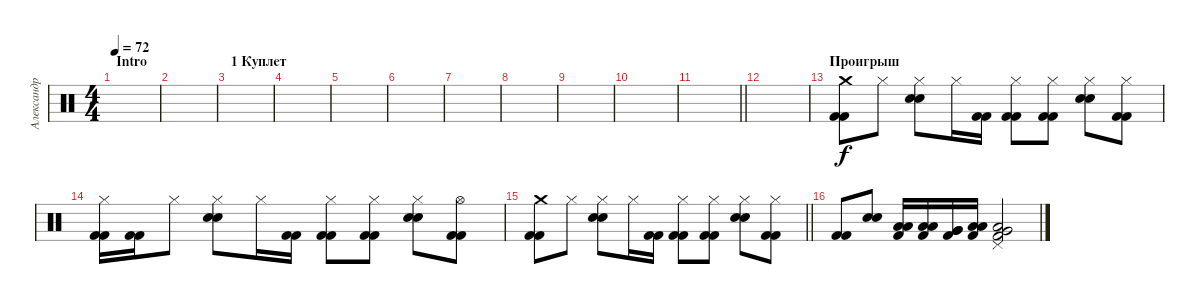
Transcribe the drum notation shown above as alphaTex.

\track ("Александр Манякин (Drums)" "Александр ") {instrument percussion}
\staff {score}
\articulation defaults
\ts (4 4)
\section ("" "Intro")
\tempo 72
\clef neutral
\ks c
|
|
\section ("" "1 Куплет")
|
|
|
|
|
|
|
|
\barLineRight lightlight
|
|
\section ("" "Проигрыш")
("Crash medium (hit)" "Kick (hit) 2" "Kick (hit) 2").8 "Hi-Hat (closed)".8 ("Hi-Hat (closed)" "Electric Snare (hit)" "Electric Snare (hit)").8 "Hi-Hat (closed)".16 ("Kick (hit) 2" "Kick (hit) 2").16 ("Hi-Hat (closed)" "Kick (hit) 2" "Kick (hit) 2").8 ("Hi-Hat (closed)" "Kick (hit) 2" "Kick (hit) 2").8 ("Hi-Hat (closed)" "Electric Snare (hit)" "Electric Snare (hit)").8 ("Hi-Hat (closed)" "Kick (hit) 2" "Kick (hit) 2").8 |
("Hi-Hat (closed)" "Kick (hit) 2" "Kick (hit) 2").16 ("Kick (hit) 2" "Kick (hit) 2").16 "Hi-Hat (closed)".8 ("Hi-Hat (closed)" "Electric Snare (hit)" "Electric Snare (hit)").8 "Hi-Hat (closed)".16 ("Kick (hit) 2" "Kick (hit) 2").16 ("Hi-Hat (closed)" "Kick (hit) 2" "Kick (hit) 2").8 ("Hi-Hat (closed)" "Kick (hit) 2" "Kick (hit) 2").8 ("Hi-Hat (closed)" "Electric Snare (hit)" "Electric Snare (hit)").8 ("Hi-Hat (open)" "Kick (hit) 2" "Kick (hit) 2").8 |
\barLineRight lightlight
("Crash medium (hit)" "Kick (hit) 2" "Kick (hit) 2").8 "Hi-Hat (closed)".8 ("Hi-Hat (closed)" "Electric Snare (hit)" "Electric Snare (hit)").8 "Hi-Hat (closed)".16 ("Kick (hit) 2" "Kick (hit) 2").16 ("Hi-Hat (closed)" "Kick (hit) 2" "Kick (hit) 2").8 ("Hi-Hat (closed)" "Kick (hit) 2" "Kick (hit) 2").8 ("Hi-Hat (closed)" "Electric Snare (hit)" "Electric Snare (hit)").8 ("Hi-Hat (closed)" "Kick (hit) 2" "Kick (hit) 2").8 |
("Kick (hit) 2" "Kick (hit) 2").8 ("Electric Snare (hit)" "Electric Snare (hit)").8 ("Low Tom (hit)" "Low Tom (hit)" "Kick (hit) 2").16 ("Low Tom (hit)" "Low Tom (hit)" "Kick (hit) 2").16 ("Very Low Tom (hit)" "Very Low Tom (hit)" "Kick (hit) 2").16 ("Low Floor Tom (hit)" "Low Floor Tom (hit)" "Kick (hit) 2").16 ("Pedal Hi-Hat (hit)" "Very Low Tom (hit)" "Low Floor Tom (hit)" "Kick (hit) 2").2
